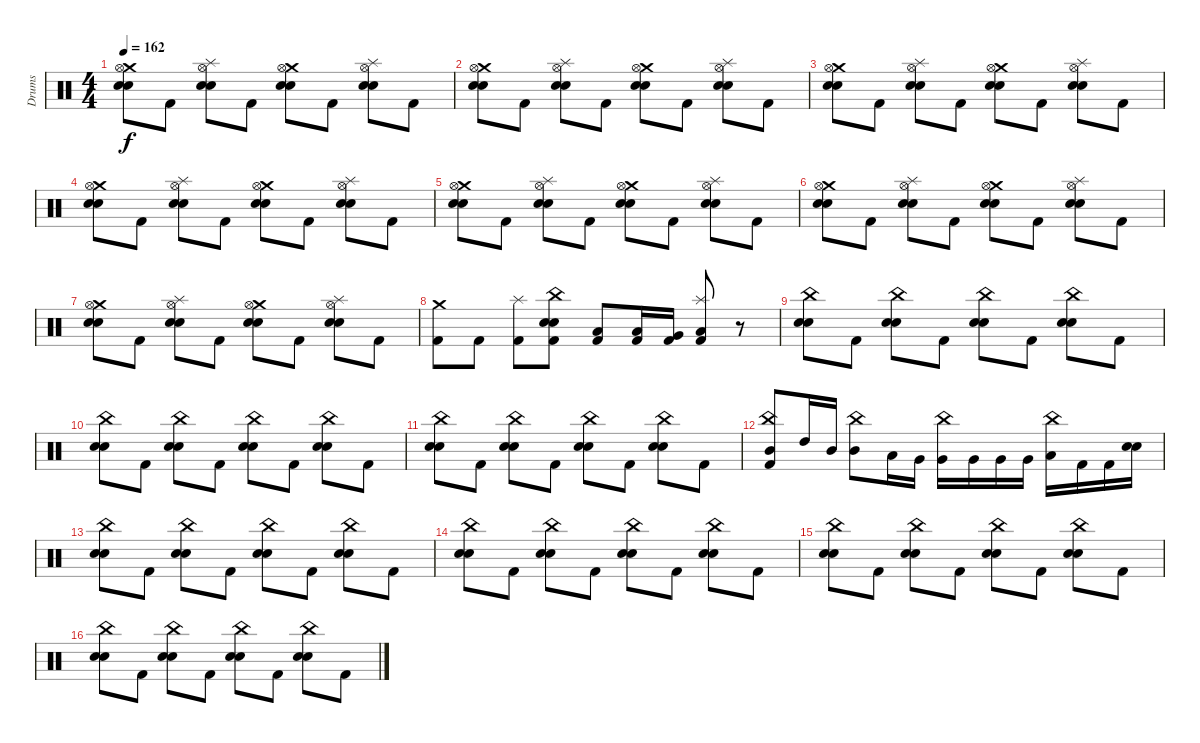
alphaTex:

\track ("Drums" "Drums") {instrument percussion}
\staff {score}
\articulation defaults
\ts (4 4)
\tempo 162
\clef neutral
\ks c
("Crash medium (hit)" "Hi-Hat (open)" "Electric Snare (hit)" "Snare (hit) 2").8{dy f} "Kick (hit) 2".8 ("Splash (hit)" "Hi-Hat (open)" "Electric Snare (hit)" "Snare (hit) 2").8 "Kick (hit) 2".8 ("Crash medium (hit)" "Hi-Hat (open)" "Electric Snare (hit)" "Snare (hit) 2").8 "Kick (hit) 2".8 ("Splash (hit)" "Hi-Hat (open)" "Electric Snare (hit)" "Snare (hit) 2").8 "Kick (hit) 2".8 |
("Crash medium (hit)" "Hi-Hat (open)" "Electric Snare (hit)" "Snare (hit) 2").8 "Kick (hit) 2".8 ("Splash (hit)" "Hi-Hat (open)" "Electric Snare (hit)" "Snare (hit) 2").8 "Kick (hit) 2".8 ("Crash medium (hit)" "Hi-Hat (open)" "Electric Snare (hit)" "Snare (hit) 2").8 "Kick (hit) 2".8 ("Splash (hit)" "Hi-Hat (open)" "Electric Snare (hit)" "Snare (hit) 2").8 "Kick (hit) 2".8 |
("Crash medium (hit)" "Hi-Hat (open)" "Electric Snare (hit)" "Snare (hit) 2").8 "Kick (hit) 2".8 ("Splash (hit)" "Hi-Hat (open)" "Electric Snare (hit)" "Snare (hit) 2").8 "Kick (hit) 2".8 ("Crash medium (hit)" "Hi-Hat (open)" "Electric Snare (hit)" "Snare (hit) 2").8 "Kick (hit) 2".8 ("Splash (hit)" "Hi-Hat (open)" "Electric Snare (hit)" "Snare (hit) 2").8 "Kick (hit) 2".8 |
("Crash medium (hit)" "Hi-Hat (open)" "Electric Snare (hit)" "Snare (hit) 2").8 "Kick (hit) 2".8 ("Splash (hit)" "Hi-Hat (open)" "Electric Snare (hit)" "Snare (hit) 2").8 "Kick (hit) 2".8 ("Crash medium (hit)" "Hi-Hat (open)" "Electric Snare (hit)" "Snare (hit) 2").8 "Kick (hit) 2".8 ("Splash (hit)" "Hi-Hat (open)" "Electric Snare (hit)" "Snare (hit) 2").8 "Kick (hit) 2".8 |
("Crash medium (hit)" "Hi-Hat (open)" "Electric Snare (hit)" "Snare (hit) 2").8 "Kick (hit) 2".8 ("Splash (hit)" "Hi-Hat (open)" "Electric Snare (hit)" "Snare (hit) 2").8 "Kick (hit) 2".8 ("Crash medium (hit)" "Hi-Hat (open)" "Electric Snare (hit)" "Snare (hit) 2").8 "Kick (hit) 2".8 ("Splash (hit)" "Hi-Hat (open)" "Electric Snare (hit)" "Snare (hit) 2").8 "Kick (hit) 2".8 |
("Crash medium (hit)" "Hi-Hat (open)" "Electric Snare (hit)" "Snare (hit) 2").8 "Kick (hit) 2".8 ("Splash (hit)" "Hi-Hat (open)" "Electric Snare (hit)" "Snare (hit) 2").8 "Kick (hit) 2".8 ("Crash medium (hit)" "Hi-Hat (open)" "Electric Snare (hit)" "Snare (hit) 2").8 "Kick (hit) 2".8 ("Splash (hit)" "Hi-Hat (open)" "Electric Snare (hit)" "Snare (hit) 2").8 "Kick (hit) 2".8 |
("Crash medium (hit)" "Hi-Hat (open)" "Electric Snare (hit)" "Snare (hit) 2").8 "Kick (hit) 2".8 ("Splash (hit)" "Hi-Hat (open)" "Electric Snare (hit)" "Snare (hit) 2").8 "Kick (hit) 2".8 ("Crash medium (hit)" "Hi-Hat (open)" "Electric Snare (hit)" "Snare (hit) 2").8 "Kick (hit) 2".8 ("Splash (hit)" "Hi-Hat (open)" "Electric Snare (hit)" "Snare (hit) 2").8 "Kick (hit) 2".8 |
("Crash medium (hit)" "Kick (hit) 2").8 "Kick (hit) 2".8 ("Splash (hit)" "Kick (hit) 2").8 ("Kick (hit) 2" "China (hit)" "Electric Snare (hit)" "Snare (hit) 2").8 ("Low Tom (hit)" "Kick (hit) 2").8 ("Low Tom (hit)" "Kick (hit) 2").16 ("Very Low Tom (hit)" "Kick (hit) 2").16 ("Low Tom (hit)" "Splash (hit)" "Kick (hit) 2").8 r.8 |
("Electric Snare (hit)" "Snare (hit) 2" "China (hit)").8 "Kick (hit) 2".8 ("Electric Snare (hit)" "Snare (hit) 2" "China (hit)").8 "Kick (hit) 2".8 ("Electric Snare (hit)" "Snare (hit) 2" "China (hit)").8 "Kick (hit) 2".8 ("Electric Snare (hit)" "Snare (hit) 2" "China (hit)").8 "Kick (hit) 2".8 |
("Electric Snare (hit)" "Snare (hit) 2" "China (hit)").8 "Kick (hit) 2".8 ("Electric Snare (hit)" "Snare (hit) 2" "China (hit)").8 "Kick (hit) 2".8 ("Electric Snare (hit)" "Snare (hit) 2" "China (hit)").8 "Kick (hit) 2".8 ("Electric Snare (hit)" "Snare (hit) 2" "China (hit)").8 "Kick (hit) 2".8 |
("Electric Snare (hit)" "Snare (hit) 2" "China (hit)").8 "Kick (hit) 2".8 ("Electric Snare (hit)" "Snare (hit) 2" "China (hit)").8 "Kick (hit) 2".8 ("Electric Snare (hit)" "Snare (hit) 2" "China (hit)").8 "Kick (hit) 2".8 ("Electric Snare (hit)" "Snare (hit) 2" "China (hit)").8 "Kick (hit) 2".8 |
("Mid Tom (hit)" "Kick (hit) 2" "China (hit)").8 "High Tom (hit)".16 "Mid Tom (hit)".16 ("Mid Tom (hit)" "China (hit)").8 "Low Tom (hit)".16 "Very Low Tom (hit)".16 ("Very Low Tom (hit)" "China (hit)").16 "Very Low Tom (hit)".16 "Very Low Tom (hit)".16 "Very Low Tom (hit)".16 ("Low Floor Tom (hit)" "China (hit)").16 "Kick (hit) 2".16 "Kick (hit) 2".16 ("Electric Snare (hit)" "Snare (hit) 2").16 |
("Electric Snare (hit)" "Snare (hit) 2" "China (hit)").8 "Kick (hit) 2".8 ("Electric Snare (hit)" "Snare (hit) 2" "China (hit)").8 "Kick (hit) 2".8 ("Electric Snare (hit)" "Snare (hit) 2" "China (hit)").8 "Kick (hit) 2".8 ("Electric Snare (hit)" "Snare (hit) 2" "China (hit)").8 "Kick (hit) 2".8 |
("Electric Snare (hit)" "Snare (hit) 2" "China (hit)").8 "Kick (hit) 2".8 ("Electric Snare (hit)" "Snare (hit) 2" "China (hit)").8 "Kick (hit) 2".8 ("Electric Snare (hit)" "Snare (hit) 2" "China (hit)").8 "Kick (hit) 2".8 ("Electric Snare (hit)" "Snare (hit) 2" "China (hit)").8 "Kick (hit) 2".8 |
("Electric Snare (hit)" "Snare (hit) 2" "China (hit)").8 "Kick (hit) 2".8 ("Electric Snare (hit)" "Snare (hit) 2" "China (hit)").8 "Kick (hit) 2".8 ("Electric Snare (hit)" "Snare (hit) 2" "China (hit)").8 "Kick (hit) 2".8 ("Electric Snare (hit)" "Snare (hit) 2" "China (hit)").8 "Kick (hit) 2".8 |
("Electric Snare (hit)" "Snare (hit) 2" "China (hit)").8 "Kick (hit) 2".8 ("Electric Snare (hit)" "Snare (hit) 2" "China (hit)").8 "Kick (hit) 2".8 ("Electric Snare (hit)" "Snare (hit) 2" "China (hit)").8 "Kick (hit) 2".8 ("Electric Snare (hit)" "Snare (hit) 2" "China (hit)").8 "Kick (hit) 2".8
